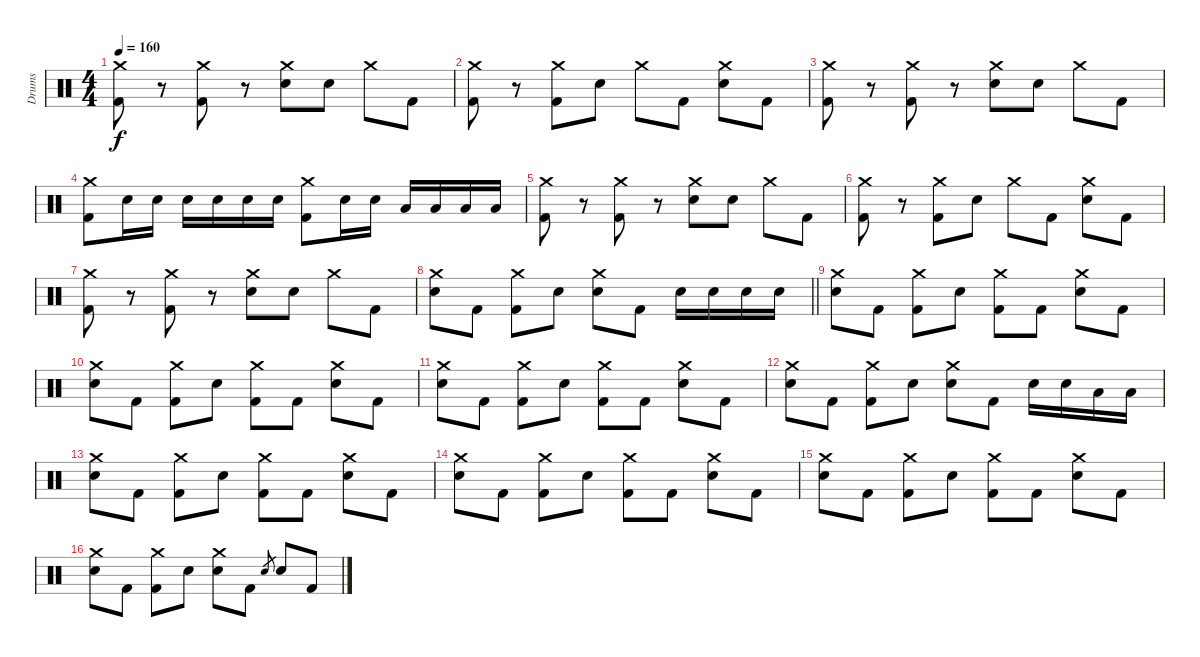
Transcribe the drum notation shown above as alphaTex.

\track ("Drums" "Drums") {instrument percussion}
\staff {score}
\articulation defaults
\ts (4 4)
\tempo 160
\clef neutral
\ks c
("Crash medium (hit)" "Kick (hit) 2").8{dy f} r.8 ("Crash medium (hit)" "Kick (hit) 2").8 r.8 ("Crash medium (hit)" "Electric Snare (hit)").8 "Electric Snare (hit)".8 "Crash medium (hit)".8 "Kick (hit) 2".8 |
("Crash medium (hit)" "Kick (hit) 2").8 r.8 ("Crash medium (hit)" "Kick (hit) 2").8 "Electric Snare (hit)".8 "Crash medium (hit)".8 "Kick (hit) 2".8 ("Crash medium (hit)" "Electric Snare (hit)").8 "Kick (hit) 2".8 |
("Crash medium (hit)" "Kick (hit) 2").8 r.8 ("Crash medium (hit)" "Kick (hit) 2").8 r.8 ("Crash medium (hit)" "Electric Snare (hit)").8 "Electric Snare (hit)".8 "Crash medium (hit)".8 "Kick (hit) 2".8 |
("Crash medium (hit)" "Kick (hit) 2").8 "Electric Snare (hit)".16 "Electric Snare (hit)".16 "Electric Snare (hit)".16 "Electric Snare (hit)".16 "Electric Snare (hit)".16 "Electric Snare (hit)".16 ("Crash medium (hit)" "Kick (hit) 2").8 "Electric Snare (hit)".16 "Electric Snare (hit)".16 "Low Tom (hit)".16 "Low Tom (hit)".16 "Low Floor Tom (hit)".16 "Low Floor Tom (hit)".16 |
("Crash medium (hit)" "Kick (hit) 2").8 r.8 ("Crash medium (hit)" "Kick (hit) 2").8 r.8 ("Crash medium (hit)" "Electric Snare (hit)").8 "Electric Snare (hit)".8 "Crash medium (hit)".8 "Kick (hit) 2".8 |
("Crash medium (hit)" "Kick (hit) 2").8 r.8 ("Crash medium (hit)" "Kick (hit) 2").8 "Electric Snare (hit)".8 "Crash medium (hit)".8 "Kick (hit) 2".8 ("Crash medium (hit)" "Electric Snare (hit)").8 "Kick (hit) 2".8 |
("Crash medium (hit)" "Kick (hit) 2").8 r.8 ("Crash medium (hit)" "Kick (hit) 2").8 r.8 ("Crash medium (hit)" "Electric Snare (hit)").8 "Electric Snare (hit)".8 "Crash medium (hit)".8 "Kick (hit) 2".8 |
\barLineRight lightlight
("Crash medium (hit)" "Electric Snare (hit)").8 "Kick (hit) 2".8 ("Crash medium (hit)" "Kick (hit) 2").8 "Electric Snare (hit)".8 ("Crash medium (hit)" "Electric Snare (hit)").8 "Kick (hit) 2".8 "Electric Snare (hit)".16 "Electric Snare (hit)".16 "Electric Snare (hit)".16 "Electric Snare (hit)".16 |
("Crash medium (hit)" "Electric Snare (hit)").8{volume 12} "Kick (hit) 2".8 ("Crash medium (hit)" "Kick (hit) 2").8 "Electric Snare (hit)".8 ("Crash medium (hit)" "Kick (hit) 2").8 "Kick (hit) 2".8 ("Crash medium (hit)" "Electric Snare (hit)").8 "Kick (hit) 2".8 |
("Crash medium (hit)" "Electric Snare (hit)").8 "Kick (hit) 2".8 ("Crash medium (hit)" "Kick (hit) 2").8 "Electric Snare (hit)".8 ("Crash medium (hit)" "Kick (hit) 2").8 "Kick (hit) 2".8 ("Crash medium (hit)" "Electric Snare (hit)").8 "Kick (hit) 2".8 |
("Crash medium (hit)" "Electric Snare (hit)").8 "Kick (hit) 2".8 ("Crash medium (hit)" "Kick (hit) 2").8 "Electric Snare (hit)".8 ("Crash medium (hit)" "Kick (hit) 2").8 "Kick (hit) 2".8 ("Crash medium (hit)" "Electric Snare (hit)").8 "Kick (hit) 2".8 |
("Crash medium (hit)" "Electric Snare (hit)").8 "Kick (hit) 2".8 ("Crash medium (hit)" "Kick (hit) 2").8 "Electric Snare (hit)".8 ("Crash medium (hit)" "Electric Snare (hit)").8 "Kick (hit) 2".8 "Electric Snare (hit)".16 "Electric Snare (hit)".16 "Low Tom (hit)".16 "Low Tom (hit)".16 |
("Crash medium (hit)" "Electric Snare (hit)").8{volume 8} "Kick (hit) 2".8 ("Crash medium (hit)" "Kick (hit) 2").8 "Electric Snare (hit)".8 ("Crash medium (hit)" "Kick (hit) 2").8 "Kick (hit) 2".8 ("Crash medium (hit)" "Electric Snare (hit)").8 "Kick (hit) 2".8 |
("Crash medium (hit)" "Electric Snare (hit)").8 "Kick (hit) 2".8 ("Crash medium (hit)" "Kick (hit) 2").8 "Electric Snare (hit)".8 ("Crash medium (hit)" "Kick (hit) 2").8 "Kick (hit) 2".8 ("Crash medium (hit)" "Electric Snare (hit)").8 "Kick (hit) 2".8 |
("Crash medium (hit)" "Electric Snare (hit)").8 "Kick (hit) 2".8 ("Crash medium (hit)" "Kick (hit) 2").8 "Electric Snare (hit)".8 ("Crash medium (hit)" "Kick (hit) 2").8 "Kick (hit) 2".8 ("Crash medium (hit)" "Electric Snare (hit)").8 "Kick (hit) 2".8 |
("Crash medium (hit)" "Electric Snare (hit)").8 "Kick (hit) 2".8 ("Crash medium (hit)" "Kick (hit) 2").8 "Electric Snare (hit)".8 ("Crash medium (hit)" "Electric Snare (hit)").8 "Kick (hit) 2".8 "Electric Snare (hit)".8{gr} "Electric Snare (hit)".8 "Kick (hit) 2".8
